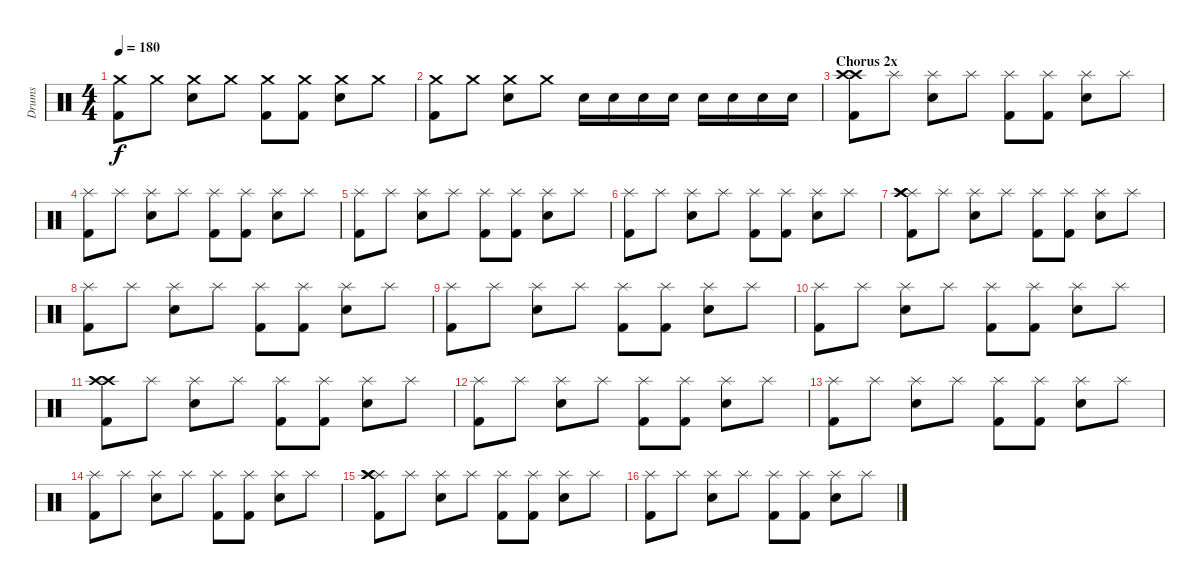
\track ("Drums" "Drums") {instrument percussion}
\staff {score}
\articulation defaults
\ts (4 4)
\tempo 180
\clef neutral
\ks c
("Crash medium (hit)" "Kick (hit) 2").8{dy f} "Crash medium (hit)".8 ("Crash medium (hit)" "Electric Snare (hit)").8 "Crash medium (hit)".8 ("Crash medium (hit)" "Kick (hit) 2").8 ("Crash medium (hit)" "Kick (hit) 2").8 ("Crash medium (hit)" "Electric Snare (hit)").8 "Crash medium (hit)".8 |
("Crash medium (hit)" "Kick (hit) 2").8 "Crash medium (hit)".8 ("Crash medium (hit)" "Electric Snare (hit)").8 "Crash medium (hit)".8 "Electric Snare (hit)".16 "Electric Snare (hit)".16 "Electric Snare (hit)".16 "Electric Snare (hit)".16 "Electric Snare (hit)".16 "Electric Snare (hit)".16 "Electric Snare (hit)".16 "Electric Snare (hit)".16 |
\section ("" "Chorus 2x")
("Kick (hit) 2" "Crash high (hit)" "Crash high (hit)").8 "Splash (hit)".8 ("Splash (hit)" "Electric Snare (hit)").8 "Splash (hit)".8 ("Splash (hit)" "Kick (hit) 2").8 ("Splash (hit)" "Kick (hit) 2").8 ("Splash (hit)" "Electric Snare (hit)").8 "Splash (hit)".8 |
("Splash (hit)" "Kick (hit) 2").8 "Splash (hit)".8 ("Splash (hit)" "Electric Snare (hit)").8 "Splash (hit)".8 ("Splash (hit)" "Kick (hit) 2").8 ("Splash (hit)" "Kick (hit) 2").8 ("Splash (hit)" "Electric Snare (hit)").8 "Splash (hit)".8 |
("Splash (hit)" "Kick (hit) 2").8 "Splash (hit)".8 ("Splash (hit)" "Electric Snare (hit)").8 "Splash (hit)".8 ("Splash (hit)" "Kick (hit) 2").8 ("Splash (hit)" "Kick (hit) 2").8 ("Splash (hit)" "Electric Snare (hit)").8 "Splash (hit)".8 |
("Splash (hit)" "Kick (hit) 2").8 "Splash (hit)".8 ("Splash (hit)" "Electric Snare (hit)").8 "Splash (hit)".8 ("Splash (hit)" "Kick (hit) 2").8 ("Splash (hit)" "Kick (hit) 2").8 ("Splash (hit)" "Electric Snare (hit)").8 "Splash (hit)".8 |
("Splash (hit)" "Kick (hit) 2" "Crash high (hit)" "Crash high (hit)").8 "Splash (hit)".8 ("Splash (hit)" "Electric Snare (hit)").8 "Splash (hit)".8 ("Splash (hit)" "Kick (hit) 2").8 ("Splash (hit)" "Kick (hit) 2").8 ("Splash (hit)" "Electric Snare (hit)").8 "Splash (hit)".8 |
("Splash (hit)" "Kick (hit) 2").8 "Splash (hit)".8 ("Splash (hit)" "Electric Snare (hit)").8 "Splash (hit)".8 ("Splash (hit)" "Kick (hit) 2").8 ("Splash (hit)" "Kick (hit) 2").8 ("Splash (hit)" "Electric Snare (hit)").8 "Splash (hit)".8 |
("Splash (hit)" "Kick (hit) 2").8 "Splash (hit)".8 ("Splash (hit)" "Electric Snare (hit)").8 "Splash (hit)".8 ("Splash (hit)" "Kick (hit) 2").8 ("Splash (hit)" "Kick (hit) 2").8 ("Splash (hit)" "Electric Snare (hit)").8 "Splash (hit)".8 |
("Splash (hit)" "Kick (hit) 2").8 "Splash (hit)".8 ("Splash (hit)" "Electric Snare (hit)").8 "Splash (hit)".8 ("Splash (hit)" "Kick (hit) 2").8 ("Splash (hit)" "Kick (hit) 2").8 ("Splash (hit)" "Electric Snare (hit)").8 "Splash (hit)".8 |
("Kick (hit) 2" "Crash high (hit)" "Crash high (hit)").8 "Splash (hit)".8 ("Splash (hit)" "Electric Snare (hit)").8 "Splash (hit)".8 ("Splash (hit)" "Kick (hit) 2").8 ("Splash (hit)" "Kick (hit) 2").8 ("Splash (hit)" "Electric Snare (hit)").8 "Splash (hit)".8 |
("Splash (hit)" "Kick (hit) 2").8 "Splash (hit)".8 ("Splash (hit)" "Electric Snare (hit)").8 "Splash (hit)".8 ("Splash (hit)" "Kick (hit) 2").8 ("Splash (hit)" "Kick (hit) 2").8 ("Splash (hit)" "Electric Snare (hit)").8 "Splash (hit)".8 |
("Splash (hit)" "Kick (hit) 2").8 "Splash (hit)".8 ("Splash (hit)" "Electric Snare (hit)").8 "Splash (hit)".8 ("Splash (hit)" "Kick (hit) 2").8 ("Splash (hit)" "Kick (hit) 2").8 ("Splash (hit)" "Electric Snare (hit)").8 "Splash (hit)".8 |
("Splash (hit)" "Kick (hit) 2").8 "Splash (hit)".8 ("Splash (hit)" "Electric Snare (hit)").8 "Splash (hit)".8 ("Splash (hit)" "Kick (hit) 2").8 ("Splash (hit)" "Kick (hit) 2").8 ("Splash (hit)" "Electric Snare (hit)").8 "Splash (hit)".8 |
("Splash (hit)" "Kick (hit) 2" "Crash high (hit)" "Crash high (hit)").8 "Splash (hit)".8 ("Splash (hit)" "Electric Snare (hit)").8 "Splash (hit)".8 ("Splash (hit)" "Kick (hit) 2").8 ("Splash (hit)" "Kick (hit) 2").8 ("Splash (hit)" "Electric Snare (hit)").8 "Splash (hit)".8 |
("Splash (hit)" "Kick (hit) 2").8 "Splash (hit)".8 ("Splash (hit)" "Electric Snare (hit)").8 "Splash (hit)".8 ("Splash (hit)" "Kick (hit) 2").8 ("Splash (hit)" "Kick (hit) 2").8 ("Splash (hit)" "Electric Snare (hit)").8 "Splash (hit)".8
